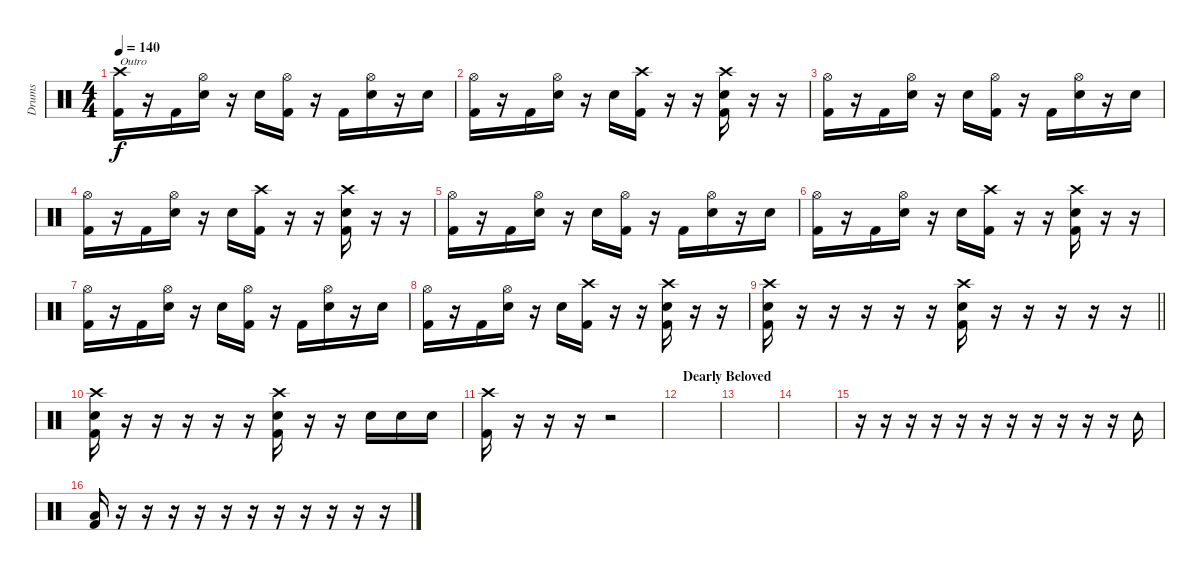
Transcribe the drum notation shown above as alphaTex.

\track ("Drums" "Drums") {instrument percussion}
\staff {score}
\articulation defaults
\ts (4 4)
\tempo 140
\clef neutral
\ks c
("Crash high (hit)" "Kick (hit) 2").16{txt "Outro" dy f} r.16 "Kick (hit) 2".16 ("Hi-Hat (open)" "Snare (hit) 2").16 r.16 "Snare (hit) 2".16 ("Hi-Hat (open)" "Kick (hit) 2").16 r.16 "Kick (hit) 2".16 ("Hi-Hat (open)" "Snare (hit) 2").16 r.16 "Snare (hit) 2".16 |
("Hi-Hat (open)" "Kick (hit) 2").16 r.16 "Kick (hit) 2".16 ("Hi-Hat (open)" "Snare (hit) 2").16 r.16 "Snare (hit) 2".16 ("Crash high (hit)" "Kick (hit) 2").16 r.16 r.16 ("Crash high (hit)" "Snare (hit) 2" "Kick (hit) 2").16 r.16 r.16 |
("Hi-Hat (open)" "Kick (hit) 2").16 r.16 "Kick (hit) 2".16 ("Hi-Hat (open)" "Snare (hit) 2").16 r.16 "Snare (hit) 2".16 ("Hi-Hat (open)" "Kick (hit) 2").16 r.16 "Kick (hit) 2".16 ("Hi-Hat (open)" "Snare (hit) 2").16 r.16 "Snare (hit) 2".16 |
("Hi-Hat (open)" "Kick (hit) 2").16 r.16 "Kick (hit) 2".16 ("Hi-Hat (open)" "Snare (hit) 2").16 r.16 "Snare (hit) 2".16 ("Crash high (hit)" "Kick (hit) 2").16 r.16 r.16 ("Crash high (hit)" "Snare (hit) 2" "Kick (hit) 2").16 r.16 r.16 |
("Hi-Hat (open)" "Kick (hit) 2").16 r.16 "Kick (hit) 2".16 ("Hi-Hat (open)" "Snare (hit) 2").16 r.16 "Snare (hit) 2".16 ("Hi-Hat (open)" "Kick (hit) 2").16 r.16 "Kick (hit) 2".16 ("Hi-Hat (open)" "Snare (hit) 2").16 r.16 "Snare (hit) 2".16 |
("Hi-Hat (open)" "Kick (hit) 2").16 r.16 "Kick (hit) 2".16 ("Hi-Hat (open)" "Snare (hit) 2").16 r.16 "Snare (hit) 2".16 ("Crash high (hit)" "Kick (hit) 2").16 r.16 r.16 ("Crash high (hit)" "Snare (hit) 2" "Kick (hit) 2").16 r.16 r.16 |
("Hi-Hat (open)" "Kick (hit) 2").16 r.16 "Kick (hit) 2".16 ("Hi-Hat (open)" "Snare (hit) 2").16 r.16 "Snare (hit) 2".16 ("Hi-Hat (open)" "Kick (hit) 2").16 r.16 "Kick (hit) 2".16 ("Hi-Hat (open)" "Snare (hit) 2").16 r.16 "Snare (hit) 2".16 |
("Hi-Hat (open)" "Kick (hit) 2").16 r.16 "Kick (hit) 2".16 ("Hi-Hat (open)" "Snare (hit) 2").16 r.16 "Snare (hit) 2".16 ("Crash high (hit)" "Kick (hit) 2").16 r.16 r.16 ("Crash high (hit)" "Snare (hit) 2" "Kick (hit) 2").16 r.16 r.16 |
\barLineRight lightlight
("Crash high (hit)" "Snare (hit) 2" "Kick (hit) 2").16 r.16 r.16 r.16 r.16 r.16 ("Crash high (hit)" "Snare (hit) 2" "Kick (hit) 2").16 r.16 r.16 r.16 r.16 r.16 |
("Crash high (hit)" "Snare (hit) 2" "Kick (hit) 2").16 r.16 r.16 r.16 r.16 r.16 ("Crash high (hit)" "Snare (hit) 2" "Kick (hit) 2").16 r.16 r.16 "Snare (hit) 2".16 "Snare (hit) 2".16 "Snare (hit) 2".16 |
("Crash high (hit)" "Kick (hit) 2").16 r.16 r.16 r.16 r.2 |
\section ("" "Dearly Beloved")
|
|
|
r.16 r.16 r.16 r.16 r.16 r.16 r.16 r.16 r.16 r.16 r.16 "Tambourine (hit)".16 |
("Low Floor Tom (hit)" "Kick (hit) 2").16 r.16 r.16 r.16 r.16 r.16 r.16 r.16 r.16 r.16 r.16 r.16
